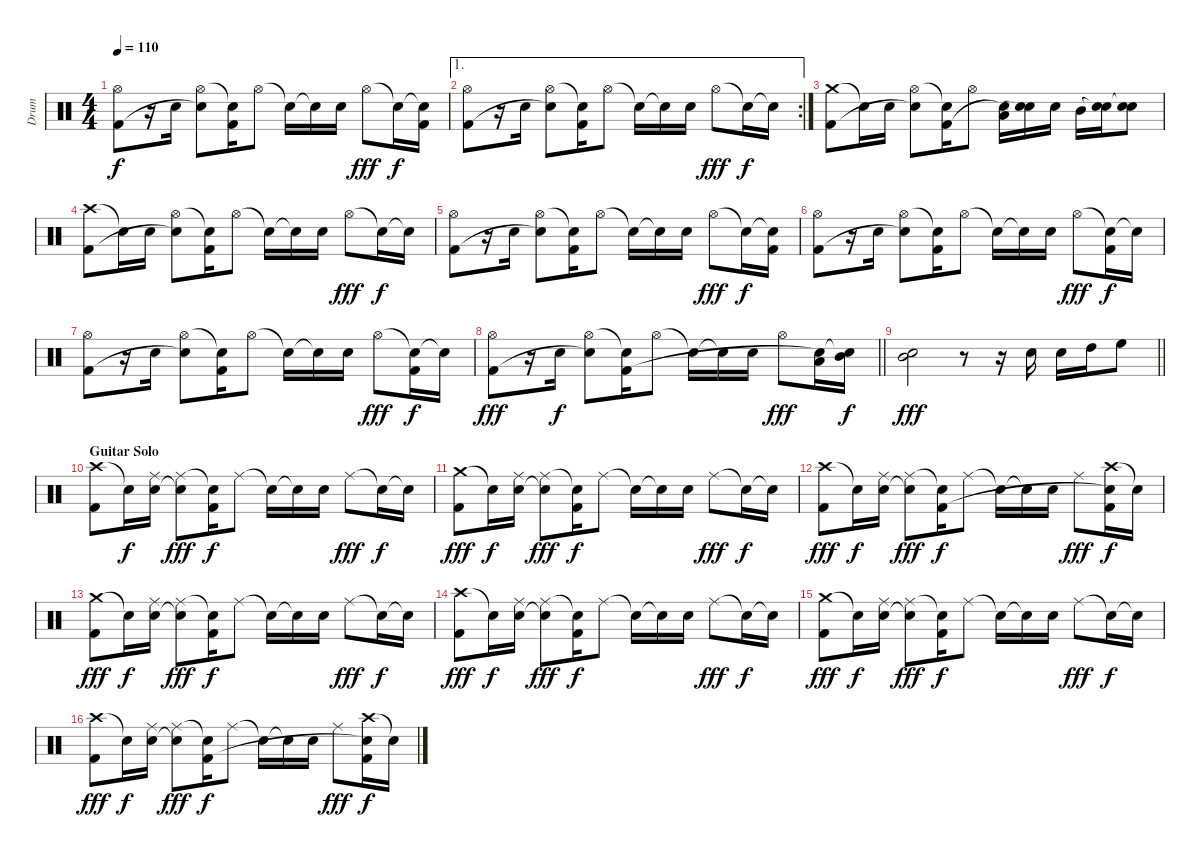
\track ("Drum" "Drum") {instrument percussion}
\staff {score}
\articulation defaults
\ts (4 4)
\tempo 110
\clef neutral
\ks c
("Hi-Hat (open)" "Kick (hit) 2").8{dy f} r.16 "Electric Snare (hit)".16 ("Hi-Hat (open)" "Electric Snare (hit)"{t}).8 ("Snare (hit)"{t} "Kick (hit) 2").16 "Hi-Hat (open)".8 "Snare (hit)"{t}.16 "Snare (hit)"{t}.16 "Electric Snare (hit)".16 "Hi-Hat (open)".8{dy fff} "Snare (hit)"{t}.16{dy f} ("Snare (hit)"{t} "Kick (hit) 2").16 |
\ae 1
\rc 2
("Hi-Hat (open)" "Kick (hit) 2").8 r.16 "Electric Snare (hit)".16 ("Hi-Hat (open)" "Electric Snare (hit)"{t}).8 ("Snare (hit)"{t} "Kick (hit) 2").16 "Hi-Hat (open)".8 "Snare (hit)"{t}.16 "Snare (hit)"{t}.16 "Electric Snare (hit)".16 "Hi-Hat (open)".8{dy fff} "Snare (hit)"{t}.16{dy f} "Snare (hit)"{t}.16 |
("Crash medium (hit)" "Kick (hit) 2").8 "Snare (hit)"{t}.16 "Electric Snare (hit)".16 ("Hi-Hat (open)" "Electric Snare (hit)"{t}).8 ("Snare (hit)"{t} "Kick (hit) 2").16 "Hi-Hat (open)".8 ("Low Tom (hit)" "Snare (hit)"{t}).16 ("Snare (hit)"{t} "Electric Snare (hit)").16 "Electric Snare (hit)".16 "Mid Tom (hit)".16 ("Snare (hit)"{t} "Electric Snare (hit)").16 ("Snare (hit)"{t} "Electric Snare (hit)").8 |
("Crash high (hit)" "Kick (hit) 2").8 "Snare (hit)"{t}.16 "Electric Snare (hit)".16 ("Hi-Hat (open)" "Electric Snare (hit)"{t}).8 ("Snare (hit)"{t} "Kick (hit) 2").16 "Hi-Hat (open)".8 "Snare (hit)"{t}.16 "Snare (hit)"{t}.16 "Electric Snare (hit)".16 "Hi-Hat (open)".8{dy fff} "Snare (hit)"{t}.16{dy f} "Snare (hit)"{t}.16 |
("Hi-Hat (open)" "Kick (hit) 2").8 r.16 "Electric Snare (hit)".16 ("Hi-Hat (open)" "Electric Snare (hit)"{t}).8 ("Snare (hit)"{t} "Kick (hit) 2").16 "Hi-Hat (open)".8 "Snare (hit)"{t}.16 "Snare (hit)"{t}.16 "Electric Snare (hit)".16 "Hi-Hat (open)".8{dy fff} "Snare (hit)"{t}.16{dy f} ("Snare (hit)"{t} "Kick (hit) 2").16 |
("Hi-Hat (open)" "Kick (hit) 2").8 r.16 "Electric Snare (hit)".16 ("Hi-Hat (open)" "Electric Snare (hit)"{t}).8 ("Snare (hit)"{t} "Kick (hit) 2").16 "Hi-Hat (open)".8 "Snare (hit)"{t}.16 "Snare (hit)"{t}.16 "Electric Snare (hit)".16 "Hi-Hat (open)".8{dy fff} ("Snare (hit)"{t} "Kick (hit) 2").16{dy f} "Snare (hit)"{t}.16 |
("Hi-Hat (open)" "Kick (hit) 2").8 r.16 "Electric Snare (hit)".16 ("Hi-Hat (open)" "Electric Snare (hit)"{t}).8 ("Snare (hit)"{t} "Kick (hit) 2").16 "Hi-Hat (open)".8 "Snare (hit)"{t}.16 "Snare (hit)"{t}.16 "Electric Snare (hit)".16 "Hi-Hat (open)".8{dy fff} ("Snare (hit)"{t} "Kick (hit) 2").16{dy f} "Snare (hit)"{t}.16 |
\barLineRight lightlight
("Hi-Hat (open)" "Kick (hit) 2").8{dy fff} r.16 "Electric Snare (hit)".16{dy f} ("Hi-Hat (open)" "Electric Snare (hit)"{t}).8 ("Snare (hit)"{t} "Kick (hit) 2").16 "Hi-Hat (open)".8 "Snare (hit)"{t}.16 "Snare (hit)"{t}.16 "Electric Snare (hit)".16 "Hi-Hat (open)".8{dy fff} ("Low Tom (hit)" "Snare (hit)"{t}).16 ("Mid Tom (hit)" "Snare (hit)"{t}).16{dy f} |
\barLineRight lightlight
("Electric Snare (hit)" "Mid Tom (hit)").2{dy fff} r.8 r.16 "Electric Snare (hit)".16 "Electric Snare (hit)".16 "High Tom (hit)".16 "High Floor Tom (hit)".8 |
\section ("" "Guitar Solo")
("Crash high (hit)" "Kick (hit) 2").8 "Snare (hit)"{t}.16{dy f} ("Ride (middle)" "Electric Snare (hit)").16 ("Ride (middle)" "Electric Snare (hit)"{t}).8{dy fff} ("Snare (hit)"{t} "Kick (hit) 2").16{dy f} "Ride (middle)".8 "Snare (hit)"{t}.16 "Snare (hit)"{t}.16 "Electric Snare (hit)".16 "Ride (middle)".8{dy fff} "Snare (hit)"{t}.16{dy f} "Snare (hit)"{t}.16 |
("Crash medium (hit)" "Kick (hit) 2").8{dy fff} "Snare (hit)"{t}.16{dy f} ("Ride (middle)" "Electric Snare (hit)").16 ("Ride (middle)" "Electric Snare (hit)"{t}).8{dy fff} ("Snare (hit)"{t} "Kick (hit) 2").16{dy f} "Ride (middle)".8 "Snare (hit)"{t}.16 "Snare (hit)"{t}.16 "Electric Snare (hit)".16 "Ride (middle)".8{dy fff} "Snare (hit)"{t}.16{dy f} "Snare (hit)"{t}.16 |
("Crash high (hit)" "Kick (hit) 2").8{dy fff} "Snare (hit)"{t}.16{dy f} ("Ride (middle)" "Electric Snare (hit)").16 ("Ride (middle)" "Electric Snare (hit)"{t}).8{dy fff} ("Snare (hit)"{t} "Kick (hit) 2").16{dy f} "Ride (middle)".8 "Snare (hit)"{t}.16 "Snare (hit)"{t}.16 "Electric Snare (hit)".16 "Ride (middle)".8{dy fff} ("Crash high (hit)" "Snare (hit)"{t} "Kick (hit) 2").16{dy f} "Snare (hit)"{t}.16 |
("Crash medium (hit)" "Kick (hit) 2").8{dy fff} "Snare (hit)"{t}.16{dy f} ("Ride (middle)" "Electric Snare (hit)").16 ("Ride (middle)" "Electric Snare (hit)"{t}).8{dy fff} ("Snare (hit)"{t} "Kick (hit) 2").16{dy f} "Ride (middle)".8 "Snare (hit)"{t}.16 "Snare (hit)"{t}.16 "Electric Snare (hit)".16 "Ride (middle)".8{dy fff} "Snare (hit)"{t}.16{dy f} "Snare (hit)"{t}.16 |
("Crash high (hit)" "Kick (hit) 2").8{dy fff} "Snare (hit)"{t}.16{dy f} ("Ride (middle)" "Electric Snare (hit)").16 ("Ride (middle)" "Electric Snare (hit)"{t}).8{dy fff} ("Snare (hit)"{t} "Kick (hit) 2").16{dy f} "Ride (middle)".8 "Snare (hit)"{t}.16 "Snare (hit)"{t}.16 "Electric Snare (hit)".16 "Ride (middle)".8{dy fff} "Snare (hit)"{t}.16{dy f} "Snare (hit)"{t}.16 |
("Crash medium (hit)" "Kick (hit) 2").8{dy fff} "Snare (hit)"{t}.16{dy f} ("Ride (middle)" "Electric Snare (hit)").16 ("Ride (middle)" "Electric Snare (hit)"{t}).8{dy fff} ("Snare (hit)"{t} "Kick (hit) 2").16{dy f} "Ride (middle)".8 "Snare (hit)"{t}.16 "Snare (hit)"{t}.16 "Electric Snare (hit)".16 "Ride (middle)".8{dy fff} "Snare (hit)"{t}.16{dy f} "Snare (hit)"{t}.16 |
("Crash high (hit)" "Kick (hit) 2").8{dy fff} "Snare (hit)"{t}.16{dy f} ("Ride (middle)" "Electric Snare (hit)").16 ("Ride (middle)" "Electric Snare (hit)"{t}).8{dy fff} ("Snare (hit)"{t} "Kick (hit) 2").16{dy f} "Ride (middle)".8 "Snare (hit)"{t}.16 "Snare (hit)"{t}.16 "Electric Snare (hit)".16 "Ride (middle)".8{dy fff} ("Crash high (hit)" "Snare (hit)"{t} "Kick (hit) 2").16{dy f} "Snare (hit)"{t}.16
